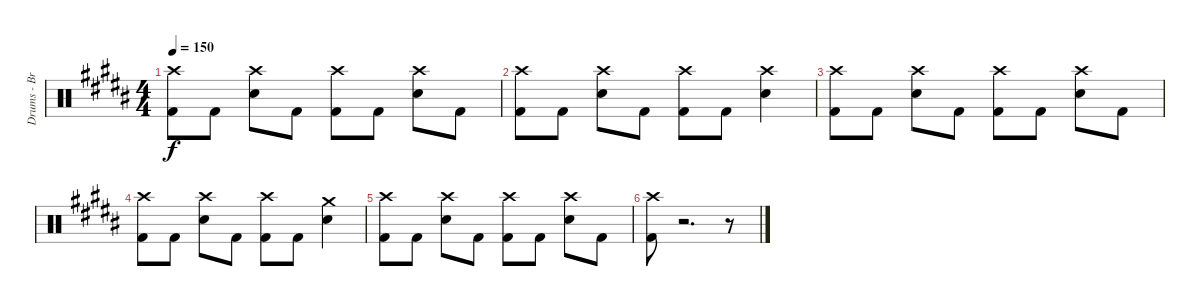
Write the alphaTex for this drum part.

\track ("Drums - Brandon" "Drums - Br") {instrument percussion}
\staff {score}
\articulation defaults
\ts (4 4)
\tempo 150
\clef neutral
\ks b
("Crash high (hit)" "Kick (hit) 2").8{dy f} "Kick (hit) 2".8 ("Crash high (hit)" "Snare (hit) 2").8 "Kick (hit) 2".8 ("Crash high (hit)" "Kick (hit) 2").8 "Kick (hit) 2".8 ("Crash high (hit)" "Snare (hit) 2").8 "Kick (hit) 2".8 |
("Crash high (hit)" "Kick (hit) 2").8 "Kick (hit) 2".8 ("Crash high (hit)" "Snare (hit) 2").8 "Kick (hit) 2".8 ("Crash high (hit)" "Kick (hit) 2").8 "Kick (hit) 2".8 ("Crash high (hit)" "Snare (hit) 2").4 |
("Crash high (hit)" "Kick (hit) 2").8 "Kick (hit) 2".8 ("Crash high (hit)" "Snare (hit) 2").8 "Kick (hit) 2".8 ("Crash high (hit)" "Kick (hit) 2").8 "Kick (hit) 2".8 ("Crash high (hit)" "Snare (hit) 2").8 "Kick (hit) 2".8 |
("Crash high (hit)" "Kick (hit) 2").8 "Kick (hit) 2".8 ("Crash high (hit)" "Snare (hit) 2").8 "Kick (hit) 2".8 ("Crash high (hit)" "Kick (hit) 2").8 "Kick (hit) 2".8 ("Crash medium (hit)" "Snare (hit) 2").4 |
("Crash high (hit)" "Kick (hit) 2").8 "Kick (hit) 2".8 ("Crash high (hit)" "Snare (hit) 2").8 "Kick (hit) 2".8 ("Crash high (hit)" "Kick (hit) 2").8 "Kick (hit) 2".8 ("Crash high (hit)" "Snare (hit) 2").8 "Kick (hit) 2".8 |
("Crash high (hit)" "Kick (hit) 2").8 r.2{d} r.8
